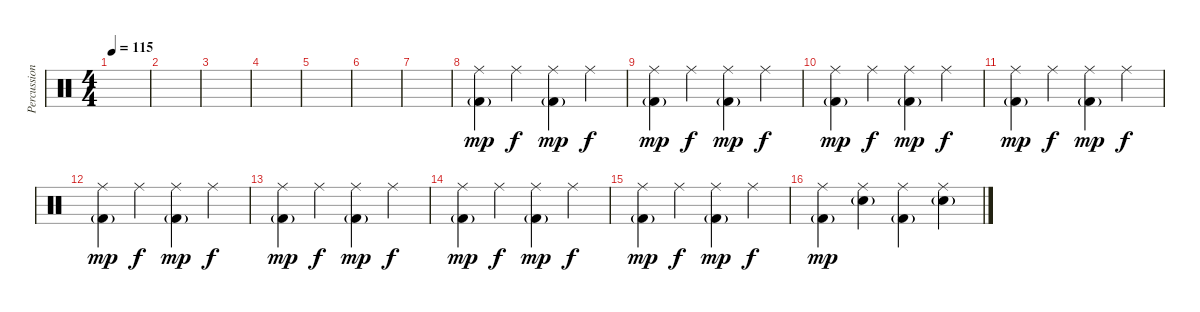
\track ("Percussion" "Percussion") {instrument percussion}
\staff {score}
\articulation defaults
\ts (4 4)
\tempo 115
\clef neutral
\ks c
|
|
|
|
|
|
|
("Ride (middle)" "Kick (hit) 2"{g}).4{dy mp} "Ride (middle)".4{dy f} ("Ride (middle)" "Kick (hit) 2"{g}).4{dy mp} "Ride (middle)".4{dy f} |
("Ride (middle)" "Kick (hit) 2"{g}).4{dy mp} "Ride (middle)".4{dy f} ("Ride (middle)" "Kick (hit) 2"{g}).4{dy mp} "Ride (middle)".4{dy f} |
("Ride (middle)" "Kick (hit) 2"{g}).4{dy mp} "Ride (middle)".4{dy f} ("Ride (middle)" "Kick (hit) 2"{g}).4{dy mp} "Ride (middle)".4{dy f} |
("Ride (middle)" "Kick (hit) 2"{g}).4{dy mp} "Ride (middle)".4{dy f} ("Ride (middle)" "Kick (hit) 2"{g}).4{dy mp} "Ride (middle)".4{dy f} |
("Ride (middle)" "Kick (hit) 2"{g}).4{dy mp} "Ride (middle)".4{dy f} ("Ride (middle)" "Kick (hit) 2"{g}).4{dy mp} "Ride (middle)".4{dy f} |
("Ride (middle)" "Kick (hit) 2"{g}).4{dy mp} "Ride (middle)".4{dy f} ("Ride (middle)" "Kick (hit) 2"{g}).4{dy mp} "Ride (middle)".4{dy f} |
("Ride (middle)" "Kick (hit) 2"{g}).4{dy mp} "Ride (middle)".4{dy f} ("Ride (middle)" "Kick (hit) 2"{g}).4{dy mp} "Ride (middle)".4{dy f} |
("Ride (middle)" "Kick (hit) 2"{g}).4{dy mp} "Ride (middle)".4{dy f} ("Ride (middle)" "Kick (hit) 2"{g}).4{dy mp} "Ride (middle)".4{dy f} |
("Ride (middle)" "Kick (hit) 2"{g}).4{dy mp} ("Ride (middle)" "Electric Snare (hit)"{g}).4 ("Ride (middle)" "Kick (hit) 2"{g}).4 ("Ride (middle)" "Electric Snare (hit)"{g}).4
